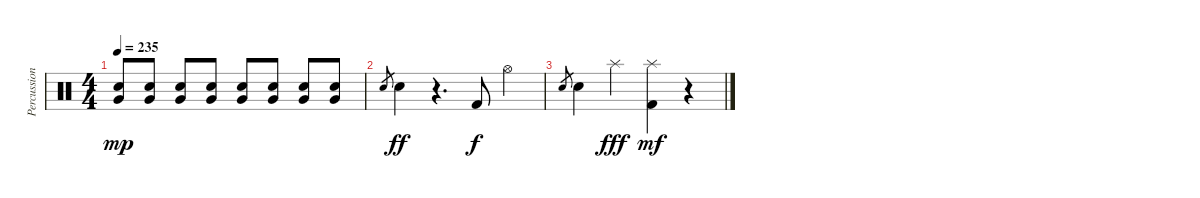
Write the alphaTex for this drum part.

\track ("Percussion" "Percussion") {instrument percussion}
\staff {score}
\articulation defaults
\ts (4 4)
\tempo 235
\clef neutral
\ks c
("Very Low Tom (hit)" "Snare (hit) 2").8{dy mp} ("Very Low Tom (hit)" "Snare (hit) 2").8 ("Very Low Tom (hit)" "Snare (hit) 2").8 ("Very Low Tom (hit)" "Snare (hit) 2").8 ("Very Low Tom (hit)" "Snare (hit) 2").8 ("Very Low Tom (hit)" "Snare (hit) 2").8 ("Very Low Tom (hit)" "Snare (hit) 2").8 ("Very Low Tom (hit)" "Snare (hit) 2").8 |
"Snare (hit) 2".8{gr} "Snare (hit) 2".4{dy ff} r.4{d} "Kick (hit) 2".8{dy f} "Hi-Hat (open)".4 |
"Snare (hit) 2".8{gr} "Snare (hit) 2".4 "Splash (hit)".4{dy fff} ("Splash (hit)" "Kick (hit) 2").4{dy mf} r.4
